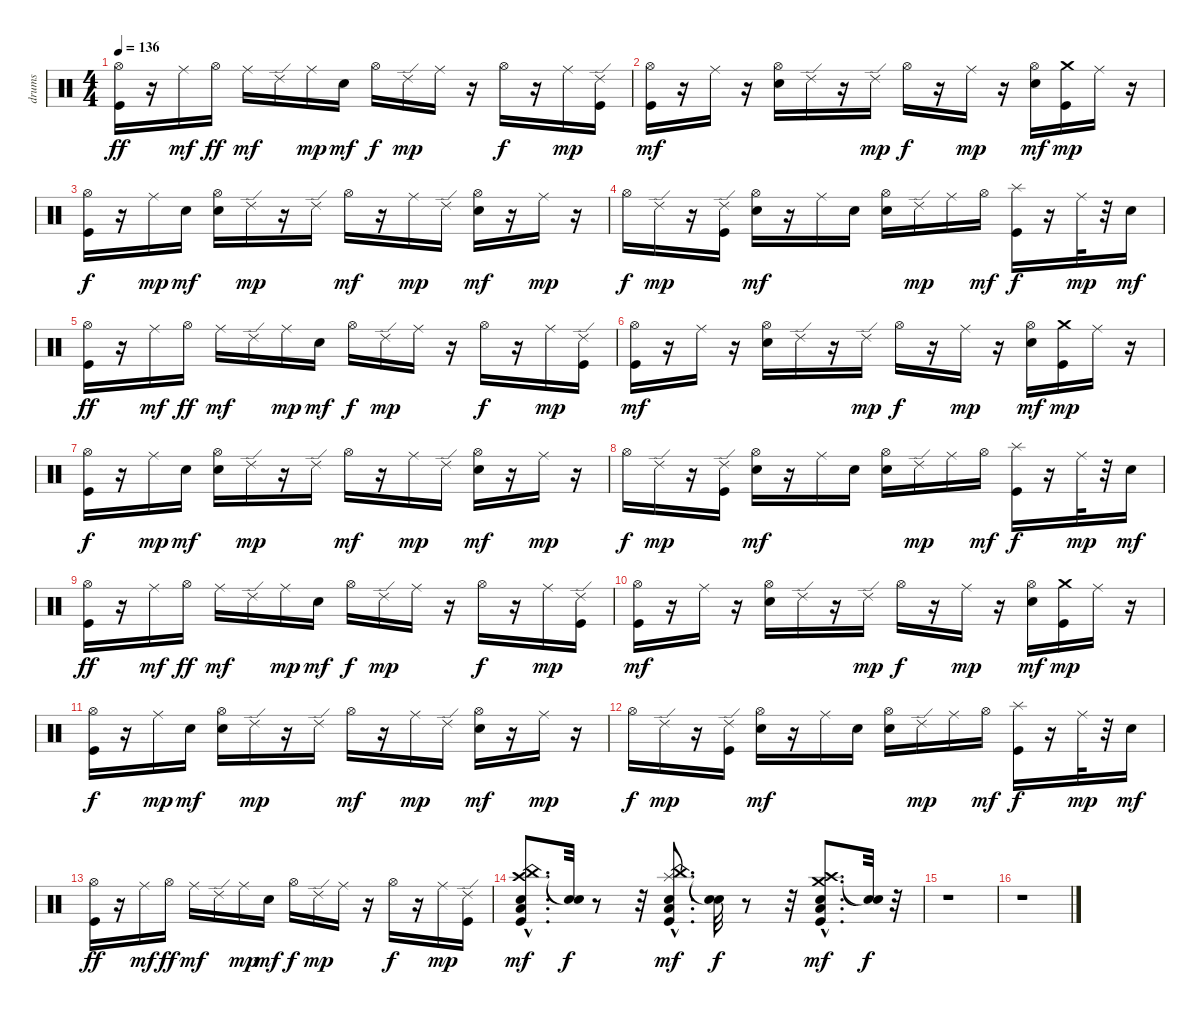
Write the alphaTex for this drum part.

\track ("drums   " "drums   ") {instrument percussion}
\staff {score}
\articulation defaults
\ts (4 4)
\tempo 136
\clef neutral
\ks c
("Kick (hit)" "Hi-Hat (open)").16{dy ff} r.16 "Ride (middle)".16{dy mf} "Hi-Hat (open)".16{dy ff} "Ride (middle)".16{dy mf} "Ride (edge) 2".16 "Ride (middle)".16{dy mp} "Electric Snare (hit)".16{dy mf} "Hi-Hat (open)".16{dy f} "Ride (edge) 2".16{dy mp} "Ride (middle)".16 r.16 "Hi-Hat (open)".16{dy f} r.16 "Ride (middle)".16{dy mp} ("Kick (hit)" "Ride (edge) 2").16 |
("Kick (hit)" "Hi-Hat (open)").16{dy mf} r.16 "Ride (middle)".16 r.16 ("Electric Snare (hit)" "Hi-Hat (open)").16 "Ride (edge) 2".16 r.16 "Ride (edge) 2".16{dy mp} "Hi-Hat (open)".16{dy f} r.16 "Ride (middle)".16{dy mp} r.16 ("Electric Snare (hit)" "Hi-Hat (open)").16{dy mf} ("Kick (hit)" "Crash medium (hit)").16{dy mp} "Ride (middle)".16 r.16 |
("Kick (hit)" "Hi-Hat (open)").16{dy f} r.16 "Ride (middle)".16{dy mp} "Electric Snare (hit)".16{dy mf} ("Electric Snare (hit)" "Hi-Hat (open)").16 "Ride (edge) 2".16{dy mp} r.16 "Ride (edge) 2".16 "Hi-Hat (open)".16{dy mf} r.16 "Ride (middle)".16{dy mp} "Ride (edge) 2".16 ("Electric Snare (hit)" "Hi-Hat (open)").16{dy mf} r.16 "Ride (middle)".16{dy mp} r.16 |
"Hi-Hat (open)".16{dy f} "Ride (edge) 2".16{dy mp} r.16 ("Kick (hit)" "Ride (edge) 2").16 ("Electric Snare (hit)" "Hi-Hat (open)").16{dy mf} r.16 "Ride (middle)".16 "Electric Snare (hit)".16 ("Electric Snare (hit)" "Hi-Hat (open)").16 "Ride (edge) 2".16{dy mp} "Ride (middle)".16 "Hi-Hat (open)".16{dy mf} ("Kick (hit)" "Splash (hit)").16{dy f} r.16 "Ride (middle)".32{dy mp} r.32 "Electric Snare (hit)".16{dy mf} |
("Kick (hit)" "Hi-Hat (open)").16{dy ff} r.16 "Ride (middle)".16{dy mf} "Hi-Hat (open)".16{dy ff} "Ride (middle)".16{dy mf} "Ride (edge) 2".16 "Ride (middle)".16{dy mp} "Electric Snare (hit)".16{dy mf} "Hi-Hat (open)".16{dy f} "Ride (edge) 2".16{dy mp} "Ride (middle)".16 r.16 "Hi-Hat (open)".16{dy f} r.16 "Ride (middle)".16{dy mp} ("Kick (hit)" "Ride (edge) 2").16 |
("Kick (hit)" "Hi-Hat (open)").16{dy mf} r.16 "Ride (middle)".16 r.16 ("Electric Snare (hit)" "Hi-Hat (open)").16 "Ride (edge) 2".16 r.16 "Ride (edge) 2".16{dy mp} "Hi-Hat (open)".16{dy f} r.16 "Ride (middle)".16{dy mp} r.16 ("Electric Snare (hit)" "Hi-Hat (open)").16{dy mf} ("Kick (hit)" "Crash medium (hit)").16{dy mp} "Ride (middle)".16 r.16 |
("Kick (hit)" "Hi-Hat (open)").16{dy f} r.16 "Ride (middle)".16{dy mp} "Electric Snare (hit)".16{dy mf} ("Electric Snare (hit)" "Hi-Hat (open)").16 "Ride (edge) 2".16{dy mp} r.16 "Ride (edge) 2".16 "Hi-Hat (open)".16{dy mf} r.16 "Ride (middle)".16{dy mp} "Ride (edge) 2".16 ("Electric Snare (hit)" "Hi-Hat (open)").16{dy mf} r.16 "Ride (middle)".16{dy mp} r.16 |
"Hi-Hat (open)".16{dy f} "Ride (edge) 2".16{dy mp} r.16 ("Kick (hit)" "Ride (edge) 2").16 ("Electric Snare (hit)" "Hi-Hat (open)").16{dy mf} r.16 "Ride (middle)".16 "Electric Snare (hit)".16 ("Electric Snare (hit)" "Hi-Hat (open)").16 "Ride (edge) 2".16{dy mp} "Ride (middle)".16 "Hi-Hat (open)".16{dy mf} ("Kick (hit)" "Splash (hit)").16{dy f} r.16 "Ride (middle)".32{dy mp} r.32 "Electric Snare (hit)".16{dy mf} |
("Kick (hit)" "Hi-Hat (open)").16{dy ff} r.16 "Ride (middle)".16{dy mf} "Hi-Hat (open)".16{dy ff} "Ride (middle)".16{dy mf} "Ride (edge) 2".16 "Ride (middle)".16{dy mp} "Electric Snare (hit)".16{dy mf} "Hi-Hat (open)".16{dy f} "Ride (edge) 2".16{dy mp} "Ride (middle)".16 r.16 "Hi-Hat (open)".16{dy f} r.16 "Ride (middle)".16{dy mp} ("Kick (hit)" "Ride (edge) 2").16 |
("Kick (hit)" "Hi-Hat (open)").16{dy mf} r.16 "Ride (middle)".16 r.16 ("Electric Snare (hit)" "Hi-Hat (open)").16 "Ride (edge) 2".16 r.16 "Ride (edge) 2".16{dy mp} "Hi-Hat (open)".16{dy f} r.16 "Ride (middle)".16{dy mp} r.16 ("Electric Snare (hit)" "Hi-Hat (open)").16{dy mf} ("Kick (hit)" "Crash medium (hit)").16{dy mp} "Ride (middle)".16 r.16 |
("Kick (hit)" "Hi-Hat (open)").16{dy f} r.16 "Ride (middle)".16{dy mp} "Electric Snare (hit)".16{dy mf} ("Electric Snare (hit)" "Hi-Hat (open)").16 "Ride (edge) 2".16{dy mp} r.16 "Ride (edge) 2".16 "Hi-Hat (open)".16{dy mf} r.16 "Ride (middle)".16{dy mp} "Ride (edge) 2".16 ("Electric Snare (hit)" "Hi-Hat (open)").16{dy mf} r.16 "Ride (middle)".16{dy mp} r.16 |
"Hi-Hat (open)".16{dy f} "Ride (edge) 2".16{dy mp} r.16 ("Kick (hit)" "Ride (edge) 2").16 ("Electric Snare (hit)" "Hi-Hat (open)").16{dy mf} r.16 "Ride (middle)".16 "Electric Snare (hit)".16 ("Electric Snare (hit)" "Hi-Hat (open)").16 "Ride (edge) 2".16{dy mp} "Ride (middle)".16 "Hi-Hat (open)".16{dy mf} ("Kick (hit)" "Splash (hit)").16{dy f} r.16 "Ride (middle)".32{dy mp} r.32 "Electric Snare (hit)".16{dy mf} |
("Kick (hit)" "Hi-Hat (open)").16{dy ff} r.16 "Ride (middle)".16{dy mf} "Hi-Hat (open)".16{dy ff} "Ride (middle)".16{dy mf} "Ride (edge) 2".16 "Ride (middle)".16{dy mp} "Electric Snare (hit)".16{dy mf} "Hi-Hat (open)".16{dy f} "Ride (edge) 2".16{dy mp} "Ride (middle)".16 r.16 "Hi-Hat (open)".16{dy f} r.16 "Ride (middle)".16{dy mp} ("Kick (hit)" "Ride (edge) 2").16 |
("Crash high (hit)"{hac} "China (hit)"{hac} "Electric Snare (hit)"{hac} "Kick (hit)"{hac} "Low Tom (hit)"{hac}).8{d dy mf} ("Snare (hit)"{t} "Snare (hit)"{t}).32{dy f} r.8 r.32 ("China (hit)"{hac} "Splash (hit)"{hac} "Electric Snare (hit)"{hac} "Kick (hit)"{hac} "Low Tom (hit)"{hac}).8{d dy mf} ("Snare (hit)"{t} "Snare (hit)"{t}).32{dy f} r.8 r.32 ("Crash high (hit)"{hac} "Crash medium (hit)"{hac} "Electric Snare (hit)"{hac} "Kick (hit)"{hac} "Low Tom (hit)"{hac}).8{d dy mf} ("Snare (hit)"{t} "Snare (hit)"{t}).32{dy f} r.32 |
r.1 |
r.1
